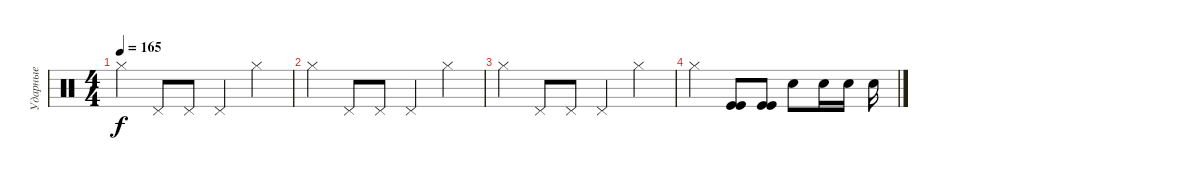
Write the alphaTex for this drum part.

\track ("Ударные" "Ударные") {instrument percussion}
\staff {score}
\articulation defaults
\ts (4 4)
\tempo 165
\clef neutral
\ks c "Hi-Hat (closed)".4{dy f} "Pedal Hi-Hat (hit)".8 "Pedal Hi-Hat (hit)".8 "Pedal Hi-Hat (hit)".4 "Hi-Hat (closed)".4
|
"Hi-Hat (closed)".4 "Pedal Hi-Hat (hit)".8 "Pedal Hi-Hat (hit)".8 "Pedal Hi-Hat (hit)".4 "Hi-Hat (closed)".4 |
"Hi-Hat (closed)".4 "Pedal Hi-Hat (hit)".8 "Pedal Hi-Hat (hit)".8 "Pedal Hi-Hat (hit)".4 "Hi-Hat (closed)".4 |
"Hi-Hat (closed)".4 ("Kick (hit)" "Kick (hit)").8 ("Kick (hit)" "Kick (hit)").8 "Electric Snare (hit)".8 "Electric Snare (hit)".16 "Electric Snare (hit)".16 "Electric Snare (hit)".16
